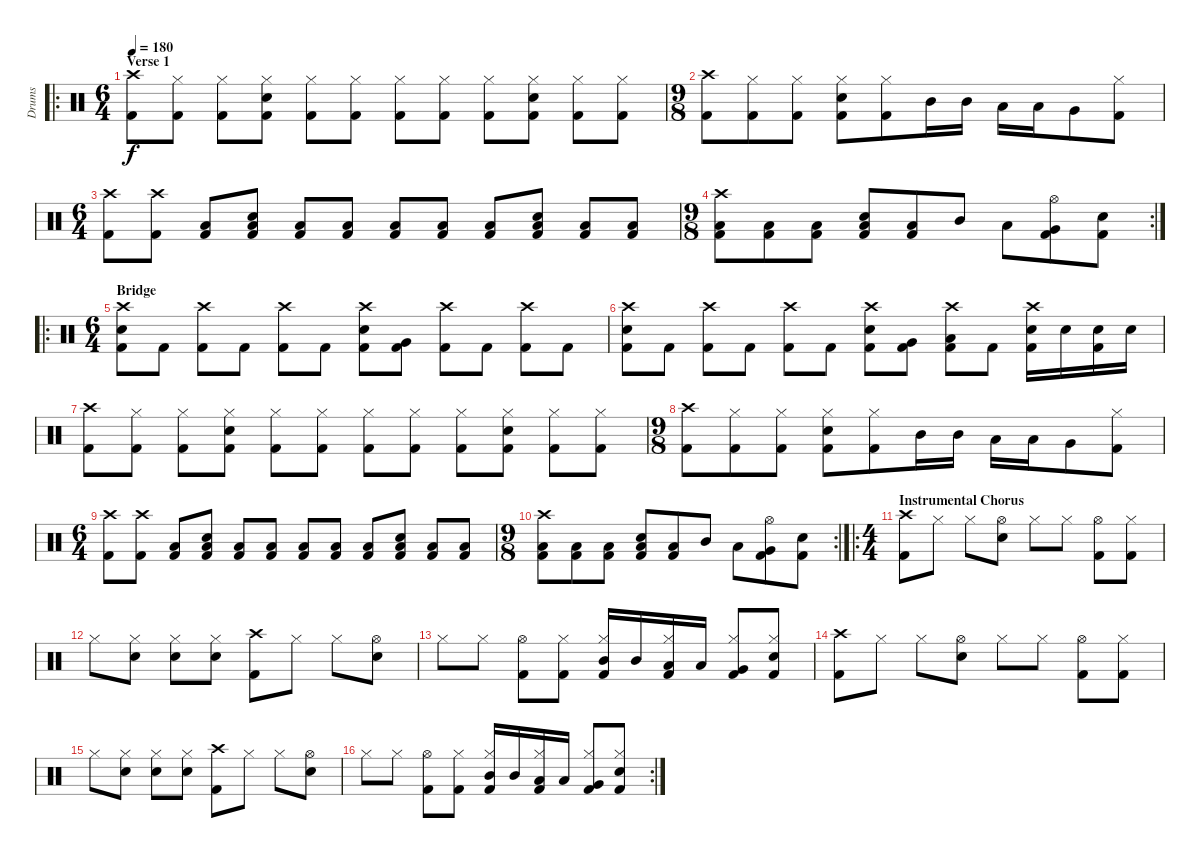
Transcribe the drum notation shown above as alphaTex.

\track ("Drums" "Drums") {instrument percussion}
\staff {score}
\articulation defaults
\ro
\ts (6 4)
\section ("" "Verse 1")
\tempo 180
\clef neutral
\ks c
("Crash high (hit)" "Kick (hit) 2").8{dy f} ("Hi-Hat (closed)" "Kick (hit) 2").8 ("Hi-Hat (closed)" "Kick (hit) 2").8 ("Hi-Hat (closed)" "Snare (hit) 2" "Kick (hit) 2").8 ("Hi-Hat (closed)" "Kick (hit) 2").8 ("Hi-Hat (closed)" "Kick (hit) 2").8 ("Hi-Hat (closed)" "Kick (hit) 2").8 ("Hi-Hat (closed)" "Kick (hit) 2").8 ("Hi-Hat (closed)" "Kick (hit) 2").8 ("Hi-Hat (closed)" "Snare (hit) 2" "Kick (hit) 2").8 ("Hi-Hat (closed)" "Kick (hit) 2").8 ("Hi-Hat (closed)" "Kick (hit) 2").8 |
\ts (9 8)
("Crash high (hit)" "Kick (hit) 2").8 ("Hi-Hat (closed)" "Kick (hit) 2").8 ("Hi-Hat (closed)" "Kick (hit) 2").8 ("Hi-Hat (closed)" "Snare (hit) 2" "Kick (hit) 2").8 ("Hi-Hat (closed)" "Kick (hit) 2").8 "Mid Tom (hit)".16 "Mid Tom (hit)".16 "Low Tom (hit)".16 "Low Tom (hit)".16 "Very Low Tom (hit)".8 ("Hi-Hat (closed)" "Kick (hit) 2").8 |
\ts (6 4)
("Crash high (hit)" "Kick (hit) 2").8 ("Crash high (hit)" "Kick (hit) 2").8 ("Low Floor Tom (hit)" "Kick (hit) 2").8 ("Snare (hit) 2" "Low Floor Tom (hit)" "Kick (hit) 2").8 ("Low Floor Tom (hit)" "Kick (hit) 2").8 ("Low Floor Tom (hit)" "Kick (hit) 2").8 ("Low Floor Tom (hit)" "Kick (hit) 2").8 ("Low Floor Tom (hit)" "Kick (hit) 2").8 ("Low Floor Tom (hit)" "Kick (hit) 2").8 ("Snare (hit) 2" "Low Floor Tom (hit)" "Kick (hit) 2").8 ("Low Floor Tom (hit)" "Kick (hit) 2").8 ("Low Floor Tom (hit)" "Kick (hit) 2").8 |
\rc 2
\ts (9 8)
("Crash high (hit)" "Low Floor Tom (hit)" "Kick (hit) 2").8 ("Low Floor Tom (hit)" "Kick (hit) 2").8 ("Low Floor Tom (hit)" "Kick (hit) 2").8 ("Snare (hit) 2" "Low Floor Tom (hit)" "Kick (hit) 2").8 ("Low Floor Tom (hit)" "Kick (hit) 2").8 "Mid Tom (hit)".8 "Low Tom (hit)".8 ("Hi-Hat (open)" "Very Low Tom (hit)" "Kick (hit) 2").8 ("Snare (hit) 2" "Kick (hit) 2").8 |
\ro
\ts (6 4)
\section ("" "Bridge")
("Crash high (hit)" "Snare (hit) 2" "Kick (hit) 2").8 "Kick (hit) 2".8 ("Crash high (hit)" "Kick (hit) 2").8 "Kick (hit) 2".8 ("Crash high (hit)" "Kick (hit) 2").8 "Kick (hit) 2".8 ("Crash high (hit)" "Snare (hit) 2" "Kick (hit) 2").8 ("Very Low Tom (hit)" "Kick (hit) 2").8 ("Crash high (hit)" "Kick (hit) 2").8 "Kick (hit) 2".8 ("Crash high (hit)" "Kick (hit) 2").8 "Kick (hit) 2".8 |
("Crash high (hit)" "Snare (hit) 2" "Kick (hit) 2").8 "Kick (hit) 2".8 ("Crash high (hit)" "Kick (hit) 2").8 "Kick (hit) 2".8 ("Crash high (hit)" "Kick (hit) 2").8 "Kick (hit) 2".8 ("Crash high (hit)" "Snare (hit) 2" "Kick (hit) 2").8 ("Very Low Tom (hit)" "Kick (hit) 2").8 ("Crash high (hit)" "Low Floor Tom (hit)" "Kick (hit) 2").8 "Kick (hit) 2".8 ("Crash high (hit)" "Snare (hit) 2" "Kick (hit) 2").16 "Snare (hit) 2".16 ("Snare (hit) 2" "Kick (hit) 2").16 "Snare (hit) 2".16 |
("Crash high (hit)" "Kick (hit) 2").8 ("Hi-Hat (closed)" "Kick (hit) 2").8 ("Hi-Hat (closed)" "Kick (hit) 2").8 ("Hi-Hat (closed)" "Snare (hit) 2" "Kick (hit) 2").8 ("Hi-Hat (closed)" "Kick (hit) 2").8 ("Hi-Hat (closed)" "Kick (hit) 2").8 ("Hi-Hat (closed)" "Kick (hit) 2").8 ("Hi-Hat (closed)" "Kick (hit) 2").8 ("Hi-Hat (closed)" "Kick (hit) 2").8 ("Hi-Hat (closed)" "Snare (hit) 2" "Kick (hit) 2").8 ("Hi-Hat (closed)" "Kick (hit) 2").8 ("Hi-Hat (closed)" "Kick (hit) 2").8 |
\ts (9 8)
("Crash high (hit)" "Kick (hit) 2").8 ("Hi-Hat (closed)" "Kick (hit) 2").8 ("Hi-Hat (closed)" "Kick (hit) 2").8 ("Hi-Hat (closed)" "Snare (hit) 2" "Kick (hit) 2").8 ("Hi-Hat (closed)" "Kick (hit) 2").8 "Mid Tom (hit)".16 "Mid Tom (hit)".16 "Low Tom (hit)".16 "Low Tom (hit)".16 "Very Low Tom (hit)".8 ("Hi-Hat (closed)" "Kick (hit) 2").8 |
\ts (6 4)
("Crash high (hit)" "Kick (hit) 2").8 ("Crash high (hit)" "Kick (hit) 2").8 ("Low Floor Tom (hit)" "Kick (hit) 2").8 ("Snare (hit) 2" "Low Floor Tom (hit)" "Kick (hit) 2").8 ("Low Floor Tom (hit)" "Kick (hit) 2").8 ("Low Floor Tom (hit)" "Kick (hit) 2").8 ("Low Floor Tom (hit)" "Kick (hit) 2").8 ("Low Floor Tom (hit)" "Kick (hit) 2").8 ("Low Floor Tom (hit)" "Kick (hit) 2").8 ("Snare (hit) 2" "Low Floor Tom (hit)" "Kick (hit) 2").8 ("Low Floor Tom (hit)" "Kick (hit) 2").8 ("Low Floor Tom (hit)" "Kick (hit) 2").8 |
\rc 2
\ts (9 8)
("Crash high (hit)" "Low Floor Tom (hit)" "Kick (hit) 2").8 ("Low Floor Tom (hit)" "Kick (hit) 2").8 ("Low Floor Tom (hit)" "Kick (hit) 2").8 ("Snare (hit) 2" "Low Floor Tom (hit)" "Kick (hit) 2").8 ("Low Floor Tom (hit)" "Kick (hit) 2").8 "Mid Tom (hit)".8 "Low Tom (hit)".8 ("Hi-Hat (open)" "Very Low Tom (hit)" "Kick (hit) 2").8 ("Snare (hit) 2" "Kick (hit) 2").8 |
\ro
\ts (4 4)
\section ("" "Instrumental Chorus")
("Crash high (hit)" "Kick (hit) 2").8 "Hi-Hat (closed)".8 "Hi-Hat (closed)".8 ("Hi-Hat (open)" "Snare (hit) 2").8 "Hi-Hat (closed)".8 "Hi-Hat (closed)".8 ("Hi-Hat (open)" "Kick (hit) 2").8 ("Hi-Hat (closed)" "Kick (hit) 2").8 |
"Hi-Hat (closed)".8 ("Hi-Hat (closed)" "Snare (hit) 2").8 ("Hi-Hat (closed)" "Snare (hit) 2").8 ("Hi-Hat (closed)" "Snare (hit) 2").8 ("Crash high (hit)" "Kick (hit) 2").8 "Hi-Hat (closed)".8 "Hi-Hat (closed)".8 ("Hi-Hat (open)" "Snare (hit) 2").8 |
"Hi-Hat (closed)".8 "Hi-Hat (closed)".8 ("Hi-Hat (open)" "Kick (hit) 2").8 ("Hi-Hat (closed)" "Kick (hit) 2").8 ("Hi-Hat (closed)" "Mid Tom (hit)" "Kick (hit) 2").16 "Mid Tom (hit)".16 ("Hi-Hat (closed)" "Low Tom (hit)" "Kick (hit) 2").16 "Low Tom (hit)".16 ("Hi-Hat (closed)" "Very Low Tom (hit)" "Kick (hit) 2").8 ("Hi-Hat (closed)" "Snare (hit) 2" "Kick (hit) 2").8 |
("Crash high (hit)" "Kick (hit) 2").8 "Hi-Hat (closed)".8 "Hi-Hat (closed)".8 ("Hi-Hat (open)" "Snare (hit) 2").8 "Hi-Hat (closed)".8 "Hi-Hat (closed)".8 ("Hi-Hat (open)" "Kick (hit) 2").8 ("Hi-Hat (closed)" "Kick (hit) 2").8 |
"Hi-Hat (closed)".8 ("Hi-Hat (closed)" "Snare (hit) 2").8 ("Hi-Hat (closed)" "Snare (hit) 2").8 ("Hi-Hat (closed)" "Snare (hit) 2").8 ("Crash high (hit)" "Kick (hit) 2").8 "Hi-Hat (closed)".8 "Hi-Hat (closed)".8 ("Hi-Hat (open)" "Snare (hit) 2").8 |
\rc 2 "Hi-Hat (closed)".8 "Hi-Hat (closed)".8
("Hi-Hat (open)" "Kick (hit) 2").8 ("Hi-Hat (closed)" "Kick (hit) 2").8 ("Hi-Hat (closed)" "Mid Tom (hit)" "Kick (hit) 2").16 "Mid Tom (hit)".16 ("Hi-Hat (closed)" "Low Tom (hit)" "Kick (hit) 2").16 "Low Tom (hit)".16 ("Hi-Hat (closed)" "Very Low Tom (hit)" "Kick (hit) 2").8 ("Hi-Hat (closed)" "Snare (hit) 2" "Kick (hit) 2").8
